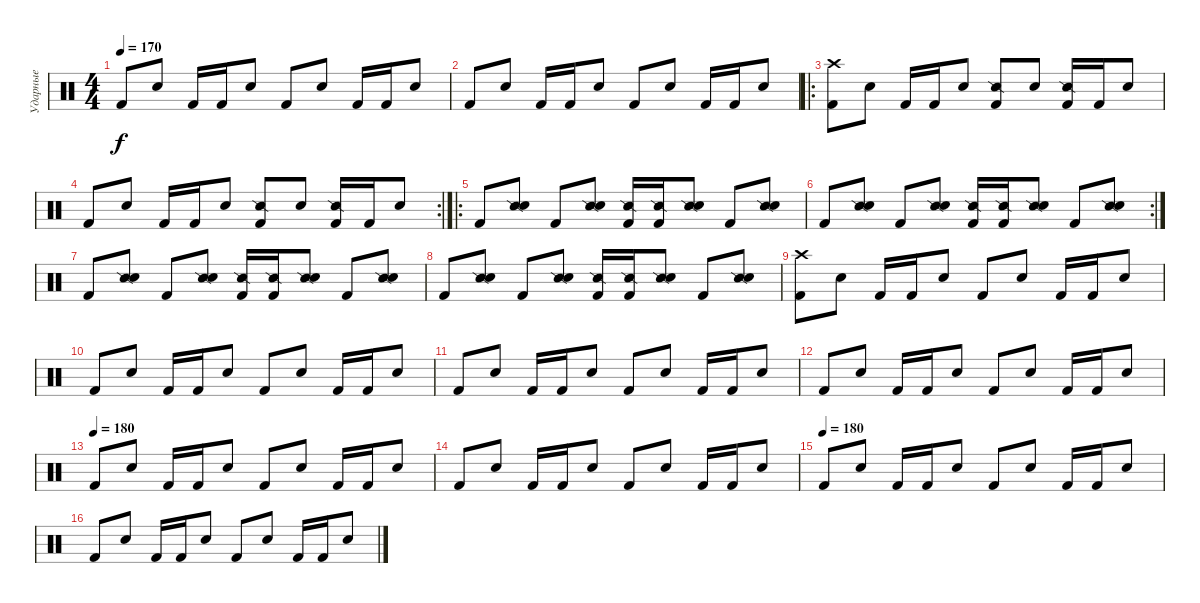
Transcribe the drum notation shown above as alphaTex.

\track ("Ударные" "Ударные") {instrument percussion}
\staff {score}
\articulation defaults
\ts (4 4)
\tempo 170
\clef neutral
\ks c "Kick (hit) 2".8{dy f} "Snare (hit) 2".8 "Kick (hit) 2".16 "Kick (hit) 2".16 "Snare (hit) 2".8 "Kick (hit) 2".8 "Snare (hit) 2".8 "Kick (hit) 2".16 "Kick (hit) 2".16 "Snare (hit) 2".8
|
"Kick (hit) 2".8 "Snare (hit) 2".8 "Kick (hit) 2".16 "Kick (hit) 2".16 "Snare (hit) 2".8 "Kick (hit) 2".8 "Snare (hit) 2".8 "Kick (hit) 2".16 "Kick (hit) 2".16 "Snare (hit) 2".8 |
\ro
("Crash high (hit)" "Kick (hit) 2").8 "Snare (hit) 2".8 "Kick (hit) 2".16 "Kick (hit) 2".16 "Snare (hit) 2".8 ("Snare (side stick) 2" "Kick (hit) 2").8 "Snare (hit) 2".8 ("Snare (side stick) 2" "Kick (hit) 2").16 "Kick (hit) 2".16 "Snare (hit) 2".8 |
\rc 2 "Kick (hit) 2".8 "Snare (hit) 2".8 "Kick (hit) 2".16 "Kick (hit) 2".16 "Snare (hit) 2".8
("Snare (side stick) 2" "Kick (hit) 2").8 "Snare (hit) 2".8 ("Snare (side stick) 2" "Kick (hit) 2").16 "Kick (hit) 2".16 "Snare (hit) 2".8 |
\ro "Kick (hit) 2".8
("Snare (side stick) 2" "Snare (hit) 2").8 "Kick (hit) 2".8 ("Snare (side stick) 2" "Snare (hit) 2").8 ("Snare (side stick) 2" "Kick (hit) 2").16 ("Snare (side stick) 2" "Kick (hit) 2").16 ("Snare (side stick) 2" "Snare (hit) 2").8 "Kick (hit) 2".8 ("Snare (side stick) 2" "Snare (hit) 2").8 |
\rc 2 "Kick (hit) 2".8
("Snare (side stick) 2" "Snare (hit) 2").8 "Kick (hit) 2".8 ("Snare (side stick) 2" "Snare (hit) 2").8 ("Snare (side stick) 2" "Kick (hit) 2").16 ("Snare (side stick) 2" "Kick (hit) 2").16 ("Snare (side stick) 2" "Snare (hit) 2").8 "Kick (hit) 2".8 ("Snare (side stick) 2" "Snare (hit) 2").8 |
"Kick (hit) 2".8 ("Snare (side stick) 2" "Snare (hit) 2").8 "Kick (hit) 2".8 ("Snare (side stick) 2" "Snare (hit) 2").8 ("Snare (side stick) 2" "Kick (hit) 2").16 ("Snare (side stick) 2" "Kick (hit) 2").16 ("Snare (side stick) 2" "Snare (hit) 2").8 "Kick (hit) 2".8 ("Snare (side stick) 2" "Snare (hit) 2").8 |
"Kick (hit) 2".8 ("Snare (side stick) 2" "Snare (hit) 2").8 "Kick (hit) 2".8 ("Snare (side stick) 2" "Snare (hit) 2").8 ("Snare (side stick) 2" "Kick (hit) 2").16 ("Snare (side stick) 2" "Kick (hit) 2").16 ("Snare (side stick) 2" "Snare (hit) 2").8 "Kick (hit) 2".8 ("Snare (side stick) 2" "Snare (hit) 2").8 |
("Crash high (hit)" "Kick (hit) 2").8 "Snare (hit) 2".8 "Kick (hit) 2".16 "Kick (hit) 2".16 "Snare (hit) 2".8 "Kick (hit) 2".8 "Snare (hit) 2".8 "Kick (hit) 2".16 "Kick (hit) 2".16 "Snare (hit) 2".8 |
"Kick (hit) 2".8 "Snare (hit) 2".8 "Kick (hit) 2".16 "Kick (hit) 2".16 "Snare (hit) 2".8 "Kick (hit) 2".8 "Snare (hit) 2".8 "Kick (hit) 2".16 "Kick (hit) 2".16 "Snare (hit) 2".8 |
"Kick (hit) 2".8 "Snare (hit) 2".8 "Kick (hit) 2".16 "Kick (hit) 2".16 "Snare (hit) 2".8 "Kick (hit) 2".8 "Snare (hit) 2".8 "Kick (hit) 2".16 "Kick (hit) 2".16 "Snare (hit) 2".8 |
"Kick (hit) 2".8 "Snare (hit) 2".8 "Kick (hit) 2".16 "Kick (hit) 2".16 "Snare (hit) 2".8 "Kick (hit) 2".8 "Snare (hit) 2".8 "Kick (hit) 2".16 "Kick (hit) 2".16 "Snare (hit) 2".8 |
\tempo (180)
"Kick (hit) 2".8 "Snare (hit) 2".8 "Kick (hit) 2".16 "Kick (hit) 2".16 "Snare (hit) 2".8 "Kick (hit) 2".8 "Snare (hit) 2".8 "Kick (hit) 2".16 "Kick (hit) 2".16 "Snare (hit) 2".8 |
"Kick (hit) 2".8 "Snare (hit) 2".8 "Kick (hit) 2".16 "Kick (hit) 2".16 "Snare (hit) 2".8 "Kick (hit) 2".8 "Snare (hit) 2".8 "Kick (hit) 2".16 "Kick (hit) 2".16 "Snare (hit) 2".8 |
\tempo (180)
"Kick (hit) 2".8 "Snare (hit) 2".8 "Kick (hit) 2".16 "Kick (hit) 2".16 "Snare (hit) 2".8 "Kick (hit) 2".8 "Snare (hit) 2".8 "Kick (hit) 2".16 "Kick (hit) 2".16 "Snare (hit) 2".8 |
"Kick (hit) 2".8 "Snare (hit) 2".8 "Kick (hit) 2".16 "Kick (hit) 2".16 "Snare (hit) 2".8 "Kick (hit) 2".8 "Snare (hit) 2".8 "Kick (hit) 2".16 "Kick (hit) 2".16 "Snare (hit) 2".8
